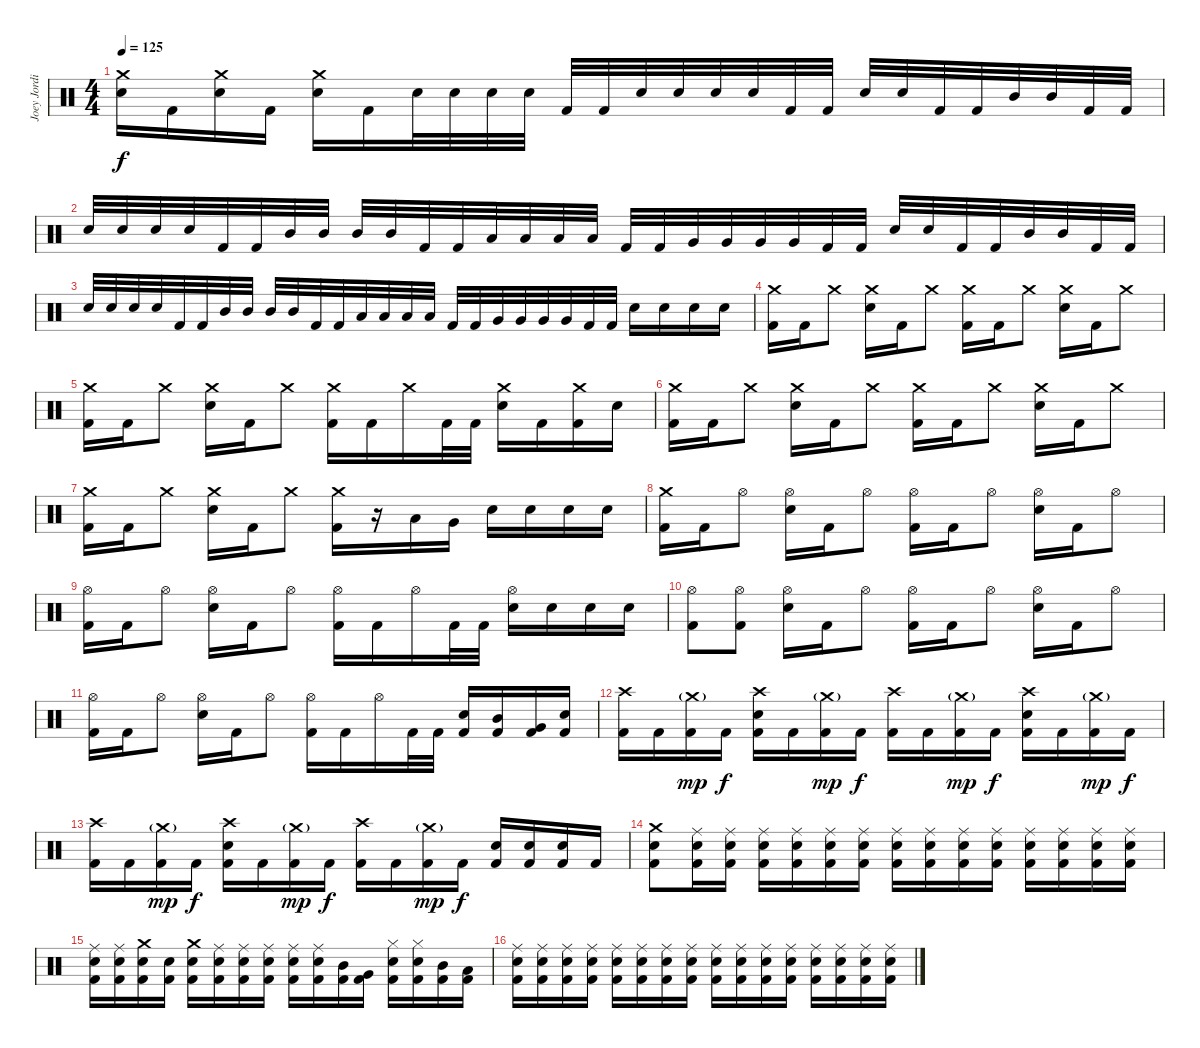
\track ("Joey Jordison" "Joey Jordi") {instrument percussion}
\staff {score}
\articulation defaults
\ts (4 4)
\tempo 125
\clef neutral
\ks c
("Crash medium (hit)" "Snare (hit) 2").16{dy f} "Kick (hit) 2".16 ("Crash medium (hit)" "Snare (hit) 2").16 "Kick (hit) 2".16 ("Crash medium (hit)" "Snare (hit) 2").16 "Kick (hit) 2".16 "Snare (hit) 2".32 "Snare (hit) 2".32 "Snare (hit) 2".32 "Snare (hit) 2".32 "Kick (hit) 2".32 "Kick (hit) 2".32 "Snare (hit) 2".32 "Snare (hit) 2".32 "Snare (hit) 2".32 "Snare (hit) 2".32 "Kick (hit) 2".32 "Kick (hit) 2".32 "Snare (hit) 2".32 "Snare (hit) 2".32 "Kick (hit) 2".32 "Kick (hit) 2".32 "Mid Tom (hit)".32 "Mid Tom (hit)".32 "Kick (hit) 2".32 "Kick (hit) 2".32 |
"Snare (hit) 2".32 "Snare (hit) 2".32 "Snare (hit) 2".32 "Snare (hit) 2".32 "Kick (hit) 2".32 "Kick (hit) 2".32 "Mid Tom (hit)".32 "Mid Tom (hit)".32 "Mid Tom (hit)".32 "Mid Tom (hit)".32 "Kick (hit) 2".32 "Kick (hit) 2".32 "Low Tom (hit)".32 "Low Tom (hit)".32 "Low Tom (hit)".32 "Low Tom (hit)".32 "Kick (hit) 2".32 "Kick (hit) 2".32 "Very Low Tom (hit)".32 "Very Low Tom (hit)".32 "Very Low Tom (hit)".32 "Very Low Tom (hit)".32 "Kick (hit) 2".32 "Kick (hit) 2".32 "Snare (hit) 2".32 "Snare (hit) 2".32 "Kick (hit) 2".32 "Kick (hit) 2".32 "Mid Tom (hit)".32 "Mid Tom (hit)".32 "Kick (hit) 2".32 "Kick (hit) 2".32 |
"Snare (hit) 2".32 "Snare (hit) 2".32 "Snare (hit) 2".32 "Snare (hit) 2".32 "Kick (hit) 2".32 "Kick (hit) 2".32 "Mid Tom (hit)".32 "Mid Tom (hit)".32 "Mid Tom (hit)".32 "Mid Tom (hit)".32 "Kick (hit) 2".32 "Kick (hit) 2".32 "Low Tom (hit)".32 "Low Tom (hit)".32 "Low Tom (hit)".32 "Low Tom (hit)".32 "Kick (hit) 2".32 "Kick (hit) 2".32 "Very Low Tom (hit)".32 "Very Low Tom (hit)".32 "Very Low Tom (hit)".32 "Very Low Tom (hit)".32 "Kick (hit) 2".32 "Kick (hit) 2".32 "Snare (hit) 2".16 "Snare (hit) 2".16 "Snare (hit) 2".16 "Snare (hit) 2".16 |
("Crash medium (hit)" "Kick (hit) 2").16 "Kick (hit) 2".16 "Crash medium (hit)".8 ("Crash medium (hit)" "Snare (hit) 2").16 "Kick (hit) 2".16 "Crash medium (hit)".8 ("Crash medium (hit)" "Kick (hit) 2").16 "Kick (hit) 2".16 "Crash medium (hit)".8 ("Crash medium (hit)" "Snare (hit) 2").16 "Kick (hit) 2".16 "Crash medium (hit)".8 |
("Crash medium (hit)" "Kick (hit) 2").16 "Kick (hit) 2".16 "Crash medium (hit)".8 ("Crash medium (hit)" "Snare (hit) 2").16 "Kick (hit) 2".16 "Crash medium (hit)".8 ("Crash medium (hit)" "Kick (hit) 2").16 "Kick (hit) 2".16 "Crash medium (hit)".16 "Kick (hit) 2".32 "Kick (hit) 2".32 ("Crash medium (hit)" "Snare (hit) 2").16 "Kick (hit) 2".16 ("Crash medium (hit)" "Kick (hit) 2").16 "Snare (hit) 2".16 |
("Crash medium (hit)" "Kick (hit) 2").16 "Kick (hit) 2".16 "Crash medium (hit)".8 ("Crash medium (hit)" "Snare (hit) 2").16 "Kick (hit) 2".16 "Crash medium (hit)".8 ("Crash medium (hit)" "Kick (hit) 2").16 "Kick (hit) 2".16 "Crash medium (hit)".8 ("Crash medium (hit)" "Snare (hit) 2").16 "Kick (hit) 2".16 "Crash medium (hit)".8 |
("Crash medium (hit)" "Kick (hit) 2").16 "Kick (hit) 2".16 "Crash medium (hit)".8 ("Crash medium (hit)" "Snare (hit) 2").16 "Kick (hit) 2".16 "Crash medium (hit)".8 ("Crash medium (hit)" "Kick (hit) 2").16 r.16 "Low Tom (hit)".16 "Very Low Tom (hit)".16 "Snare (hit) 2".16 "Snare (hit) 2".16 "Snare (hit) 2".16 "Snare (hit) 2".16 |
("Crash medium (hit)" "Kick (hit) 2").16 "Kick (hit) 2".16 "Hi-Hat (open)".8 ("Hi-Hat (open)" "Snare (hit) 2").16 "Kick (hit) 2".16 "Hi-Hat (open)".8 ("Hi-Hat (open)" "Kick (hit) 2").16 "Kick (hit) 2".16 "Hi-Hat (open)".8 ("Hi-Hat (open)" "Snare (hit) 2").16 "Kick (hit) 2".16 "Hi-Hat (open)".8 |
("Hi-Hat (open)" "Kick (hit) 2").16 "Kick (hit) 2".16 "Hi-Hat (open)".8 ("Hi-Hat (open)" "Snare (hit) 2").16 "Kick (hit) 2".16 "Hi-Hat (open)".8 ("Hi-Hat (open)" "Kick (hit) 2").16 "Kick (hit) 2".16 "Hi-Hat (open)".16 "Kick (hit) 2".32 "Kick (hit) 2".32 ("Hi-Hat (open)" "Snare (hit) 2").16 "Snare (hit) 2".16 "Snare (hit) 2".16 "Snare (hit) 2".16 |
("Hi-Hat (open)" "Kick (hit) 2").8 ("Hi-Hat (open)" "Kick (hit) 2").8 ("Hi-Hat (open)" "Snare (hit) 2").16 "Kick (hit) 2".16 "Hi-Hat (open)".8 ("Hi-Hat (open)" "Kick (hit) 2").16 "Kick (hit) 2".16 "Hi-Hat (open)".8 ("Hi-Hat (open)" "Snare (hit) 2").16 "Kick (hit) 2".16 "Hi-Hat (open)".8 |
("Hi-Hat (open)" "Kick (hit) 2").16 "Kick (hit) 2".16 "Hi-Hat (open)".8 ("Hi-Hat (open)" "Snare (hit) 2").16 "Kick (hit) 2".16 "Hi-Hat (open)".8 ("Hi-Hat (open)" "Kick (hit) 2").16 "Kick (hit) 2".16 "Hi-Hat (open)".16 "Kick (hit) 2".32 "Kick (hit) 2".32 ("Snare (hit) 2" "Kick (hit) 2").16 ("Mid Tom (hit)" "Kick (hit) 2").16 ("Very Low Tom (hit)" "Kick (hit) 2").16 ("Snare (hit) 2" "Kick (hit) 2").16 |
("Crash high (hit)" "Kick (hit) 2").16 "Kick (hit) 2".16 ("Crash medium (hit)"{g} "Kick (hit) 2").16{dy mp} "Kick (hit) 2".16{dy f} ("Crash high (hit)" "Snare (hit) 2" "Kick (hit) 2").16 "Kick (hit) 2".16 ("Crash medium (hit)"{g} "Kick (hit) 2").16{dy mp} "Kick (hit) 2".16{dy f} ("Crash high (hit)" "Kick (hit) 2").16 "Kick (hit) 2".16 ("Crash medium (hit)"{g} "Kick (hit) 2").16{dy mp} "Kick (hit) 2".16{dy f} ("Crash high (hit)" "Snare (hit) 2" "Kick (hit) 2").16 "Kick (hit) 2".16 ("Crash medium (hit)"{g} "Kick (hit) 2").16{dy mp} "Kick (hit) 2".16{dy f} |
("Crash high (hit)" "Kick (hit) 2").16 "Kick (hit) 2".16 ("Crash medium (hit)"{g} "Kick (hit) 2").16{dy mp} "Kick (hit) 2".16{dy f} ("Crash high (hit)" "Snare (hit) 2" "Kick (hit) 2").16 "Kick (hit) 2".16 ("Crash medium (hit)"{g} "Kick (hit) 2").16{dy mp} "Kick (hit) 2".16{dy f} ("Crash high (hit)" "Kick (hit) 2").16 "Kick (hit) 2".16 ("Crash medium (hit)"{g} "Kick (hit) 2").16{dy mp} "Kick (hit) 2".16{dy f} ("Snare (hit) 2" "Kick (hit) 2").16 ("Snare (hit) 2" "Kick (hit) 2").16 ("Snare (hit) 2" "Kick (hit) 2").16 "Kick (hit) 2".16 |
("Crash medium (hit)" "Snare (hit) 2" "Kick (hit) 2").8 ("Ride (middle)" "Snare (hit) 2" "Kick (hit) 2").16 ("Ride (middle)" "Snare (hit) 2" "Kick (hit) 2").16 ("Ride (middle)" "Snare (hit) 2" "Kick (hit) 2").16 ("Ride (middle)" "Snare (hit) 2" "Kick (hit) 2").16 ("Ride (middle)" "Snare (hit) 2" "Kick (hit) 2").16 ("Ride (middle)" "Snare (hit) 2" "Kick (hit) 2").16 ("Ride (middle)" "Snare (hit) 2" "Kick (hit) 2").16 ("Ride (middle)" "Snare (hit) 2" "Kick (hit) 2").16 ("Ride (middle)" "Snare (hit) 2" "Kick (hit) 2").16 ("Ride (middle)" "Snare (hit) 2" "Kick (hit) 2").16 ("Ride (middle)" "Snare (hit) 2" "Kick (hit) 2").16 ("Ride (middle)" "Snare (hit) 2" "Kick (hit) 2").16 ("Ride (middle)" "Snare (hit) 2" "Kick (hit) 2").16 ("Ride (middle)" "Snare (hit) 2" "Kick (hit) 2").16 |
("Ride (middle)" "Snare (hit) 2" "Kick (hit) 2").16 ("Ride (middle)" "Snare (hit) 2" "Kick (hit) 2").16 ("Crash medium (hit)" "Snare (hit) 2" "Kick (hit) 2").16 ("Snare (hit) 2" "Kick (hit) 2").16 ("Crash medium (hit)" "Snare (hit) 2" "Kick (hit) 2").16 ("Ride (middle)" "Snare (hit) 2" "Kick (hit) 2").16 ("Ride (middle)" "Snare (hit) 2" "Kick (hit) 2").16 ("Ride (middle)" "Snare (hit) 2" "Kick (hit) 2").16 ("Ride (middle)" "Snare (hit) 2" "Kick (hit) 2").16 ("Ride (middle)" "Snare (hit) 2" "Kick (hit) 2").16 ("Mid Tom (hit)" "Kick (hit) 2").16 ("Very Low Tom (hit)" "Kick (hit) 2").16 ("Hi-Hat (closed)" "Snare (hit) 2" "Kick (hit) 2").16 ("Hi-Hat (closed)" "Snare (hit) 2" "Kick (hit) 2").16 ("Mid Tom (hit)" "Kick (hit) 2").16 ("Low Tom (hit)" "Kick (hit) 2").16 |
("Ride (middle)" "Snare (hit) 2" "Kick (hit) 2").16 ("Ride (middle)" "Snare (hit) 2" "Kick (hit) 2").16 ("Ride (middle)" "Snare (hit) 2" "Kick (hit) 2").16 ("Ride (middle)" "Snare (hit) 2" "Kick (hit) 2").16 ("Ride (middle)" "Snare (hit) 2" "Kick (hit) 2").16 ("Ride (middle)" "Snare (hit) 2" "Kick (hit) 2").16 ("Ride (middle)" "Snare (hit) 2" "Kick (hit) 2").16 ("Ride (middle)" "Snare (hit) 2" "Kick (hit) 2").16 ("Ride (middle)" "Snare (hit) 2" "Kick (hit) 2").16 ("Ride (middle)" "Snare (hit) 2" "Kick (hit) 2").16 ("Ride (middle)" "Snare (hit) 2" "Kick (hit) 2").16 ("Ride (middle)" "Snare (hit) 2" "Kick (hit) 2").16 ("Ride (middle)" "Snare (hit) 2" "Kick (hit) 2").16 ("Ride (middle)" "Snare (hit) 2" "Kick (hit) 2").16 ("Ride (middle)" "Snare (hit) 2" "Kick (hit) 2").16 ("Ride (middle)" "Snare (hit) 2" "Kick (hit) 2").16
